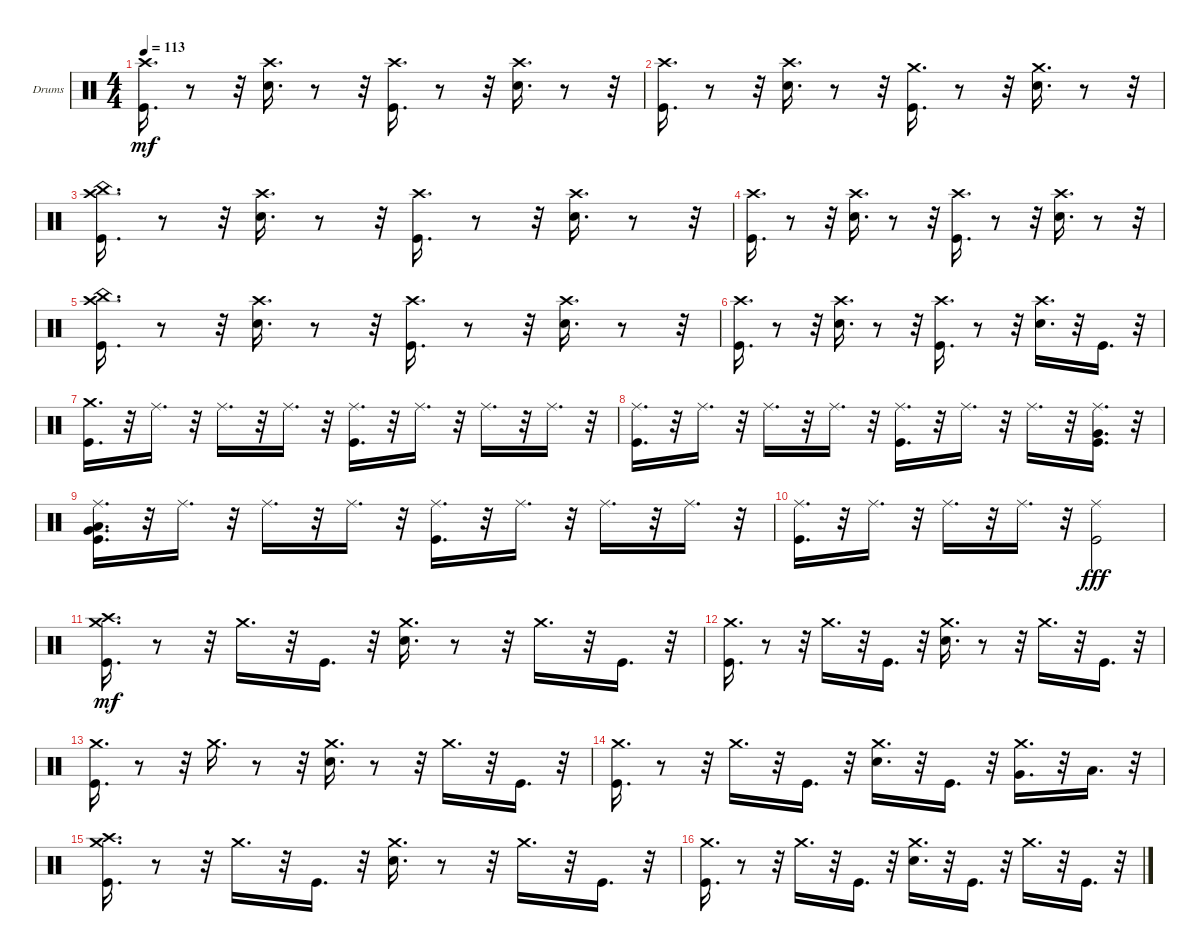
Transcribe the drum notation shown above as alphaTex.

\bracketExtendMode groupsimilarinstruments
\firstSystemTrackNameOrientation horizontal
\otherSystemsTrackNameOrientation horizontal
\track ("Drumkit" "Drums") {instrument percussion}
\staff {score}
\articulation defaults
\ts (4 4)
\tempo 113
\clef neutral
\ks c
("Crash high (hit)" "Kick (hit)").16{d dy mf} r.8 r.32 ("Crash high (hit)" "Snare (hit) 2").16{d} r.8 r.32 ("Crash high (hit)" "Kick (hit)").16{d} r.8 r.32 ("Crash high (hit)" "Snare (hit) 2").16{d} r.8 r.32 |
("Crash high (hit)" "Kick (hit)").16{d} r.8 r.32 ("Crash high (hit)" "Snare (hit) 2").16{d} r.8 r.32 ("Crash medium (hit)" "Kick (hit)").16{d} r.8 r.32 ("Crash medium (hit)" "Snare (hit) 2").16{d} r.8 r.32 |
("Crash high (hit)" "China (hit)" "Kick (hit)").16{d} r.8 r.32 ("Crash high (hit)" "Snare (hit) 2").16{d} r.8 r.32 ("Crash high (hit)" "Kick (hit)").16{d} r.8 r.32 ("Crash high (hit)" "Snare (hit) 2").16{d} r.8 r.32 |
("Crash high (hit)" "Kick (hit)").16{d} r.8 r.32 ("Crash high (hit)" "Snare (hit) 2").16{d} r.8 r.32 ("Crash high (hit)" "Kick (hit)").16{d} r.8 r.32 ("Crash high (hit)" "Snare (hit) 2").16{d} r.8 r.32 |
("Crash high (hit)" "China (hit)" "Kick (hit)").16{d} r.8 r.32 ("Crash high (hit)" "Snare (hit) 2").16{d} r.8 r.32 ("Crash high (hit)" "Kick (hit)").16{d} r.8 r.32 ("Crash high (hit)" "Snare (hit) 2").16{d} r.8 r.32 |
("Crash high (hit)" "Kick (hit)").16{d} r.8 r.32 ("Crash high (hit)" "Snare (hit) 2").16{d} r.8 r.32 ("Crash high (hit)" "Kick (hit)").16{d} r.8 r.32 ("Crash high (hit)" "Snare (hit) 2").16{d} r.32 "Kick (hit)".16{d} r.32 |
("Kick (hit)" "Crash medium (hit)").16{d} r.32 "Ride (middle)".16{d} r.32 "Ride (middle)".16{d} r.32 "Ride (middle)".16{d} r.32 ("Kick (hit)" "Ride (middle)").16{d} r.32 "Ride (middle)".16{d} r.32 "Ride (middle)".16{d} r.32 "Ride (middle)".16{d} r.32 |
("Kick (hit)" "Ride (middle)").16{d} r.32 "Ride (middle)".16{d} r.32 "Ride (middle)".16{d} r.32 "Ride (middle)".16{d} r.32 ("Kick (hit)" "Ride (middle)").16{d} r.32 "Ride (middle)".16{d} r.32 "Ride (middle)".16{d} r.32 ("Very Low Tom (hit)" "Kick (hit)" "Ride (middle)").16{d} r.32 |
("Low Tom (hit)" "Very Low Tom (hit)" "Kick (hit)" "Ride (middle)").16{d} r.32 "Ride (middle)".16{d} r.32 "Ride (middle)".16{d} r.32 "Ride (middle)".16{d} r.32 ("Kick (hit)" "Ride (middle)").16{d} r.32 "Ride (middle)".16{d} r.32 "Ride (middle)".16{d} r.32 "Ride (middle)".16{d} r.32 |
("Kick (hit)" "Ride (middle)").16{d} r.32 "Ride (middle)".16{d} r.32 "Ride (middle)".16{d} r.32 "Ride (middle)".16{d} r.32 ("Kick (hit)" "Ride (middle)").2{dy fff} |
("Crash high (hit)" "Kick (hit)" "Crash medium (hit)").16{d dy mf} r.8 r.32 "Crash medium (hit)".16{d} r.32 "Kick (hit)".16{d} r.32 ("Snare (hit) 2" "Crash medium (hit)").16{d} r.8 r.32 "Crash medium (hit)".16{d} r.32 "Kick (hit)".16{d} r.32 |
("Kick (hit)" "Crash medium (hit)").16{d} r.8 r.32 "Crash medium (hit)".16{d} r.32 "Kick (hit)".16{d} r.32 ("Snare (hit) 2" "Crash medium (hit)").16{d} r.8 r.32 "Crash medium (hit)".16{d} r.32 "Kick (hit)".16{d} r.32 |
("Kick (hit)" "Crash medium (hit)").16{d} r.8 r.32 "Crash medium (hit)".16{d} r.8 r.32 ("Snare (hit) 2" "Crash medium (hit)").16{d} r.8 r.32 "Crash medium (hit)".16{d} r.32 "Kick (hit)".16{d} r.32 |
("Kick (hit)" "Crash medium (hit)").16{d} r.8 r.32 "Crash medium (hit)".16{d} r.32 "Kick (hit)".16{d} r.32 ("Snare (hit) 2" "Crash medium (hit)").16{d} r.32 "Kick (hit)".16{d} r.32 ("Very Low Tom (hit)" "Crash medium (hit)").16{d} r.32 "Low Tom (hit)".16{d} r.32 |
("Crash high (hit)" "Crash medium (hit)" "Kick (hit)").16{d} r.8 r.32 "Crash medium (hit)".16{d} r.32 "Kick (hit)".16{d} r.32 ("Snare (hit) 2" "Crash medium (hit)").16{d} r.8 r.32 "Crash medium (hit)".16{d} r.32 "Kick (hit)".16{d} r.32 |
("Kick (hit)" "Crash medium (hit)").16{d} r.8 r.32 "Crash medium (hit)".16{d} r.32 "Kick (hit)".16{d} r.32 ("Snare (hit) 2" "Crash medium (hit)").16{d} r.32 "Kick (hit)".16{d} r.32 "Crash medium (hit)".16{d} r.32 "Kick (hit)".16{d} r.32
